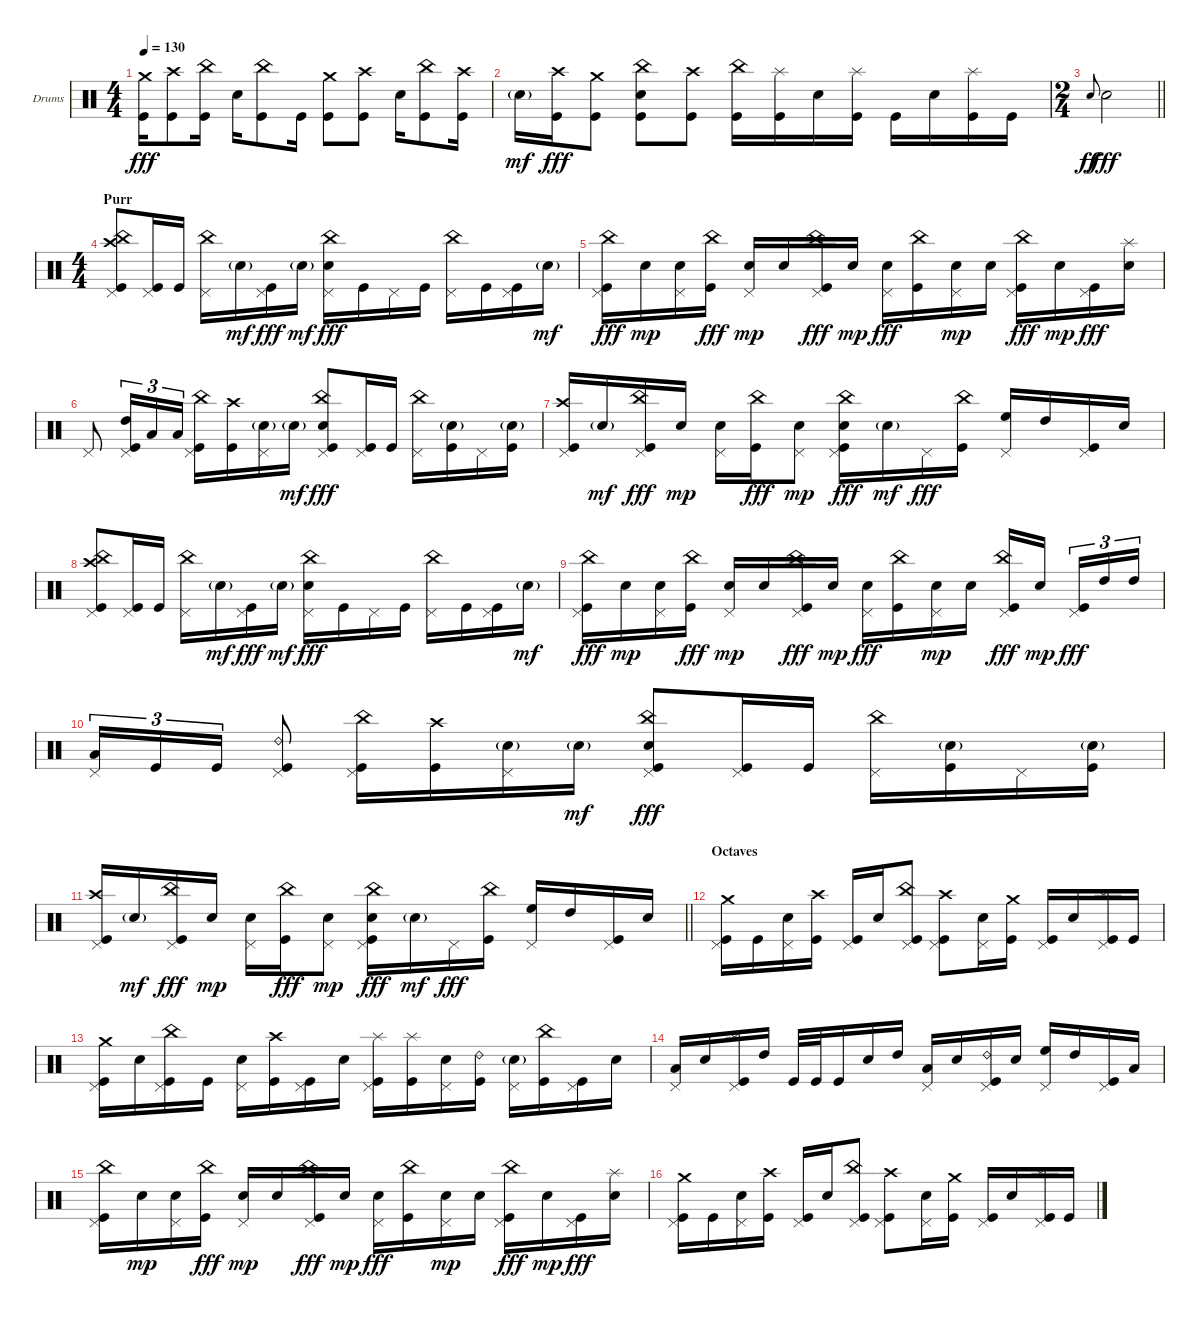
\bracketExtendMode groupsimilarinstruments
\firstSystemTrackNameOrientation horizontal
\otherSystemsTrackNameOrientation horizontal
\track ("Drumkit" "Drums") {instrument percussion}
\staff {score}
\articulation defaults
\ts (4 4)
\tempo 130
\clef neutral
\ks c
("Crash medium (hit)" "Kick (hit)").16{dy fff} ("Crash high (hit)" "Kick (hit)").8 ("China (hit)" "Kick (hit)").16 "Snare (hit) 2".16 ("China (hit)" "Kick (hit)").8 "Kick (hit)".16 ("Crash medium (hit)" "Kick (hit)").8 ("Crash high (hit)" "Kick (hit)").8 "Snare (hit) 2".16 ("China (hit)" "Kick (hit)").8 ("Crash high (hit)" "Kick (hit)").16 |
"Snare (hit) 2"{g}.16{dy mf} ("Crash high (hit)" "Kick (hit)").16{dy fff} ("Crash medium (hit)" "Kick (hit)").8 ("China (hit)" "Snare (hit) 2" "Kick (hit)").8 ("Crash high (hit)" "Kick (hit)").8 ("China (hit)" "Kick (hit)").16 ("Splash (hit)" "Kick (hit)").16 "Snare (hit) 2".16 ("Splash (hit)" "Kick (hit)").16 "Kick (hit)".16 "Snare (hit) 2".16 ("Splash (hit)" "Kick (hit)").16 "Kick (hit)".16 |
\ts (2 4)
\beaming (8 2 2)
\barLineRight lightlight "Snare (hit) 2".8{gr onbeat dy ff} "Snare (hit) 2".2{dy fff}
|
\ts (4 4)
\beaming (8 2 2 2 2)
\section ("" "Purr")
("Crash high (hit)" "China (hit)" "Pedal Hi-Hat (hit)" "Kick (hit)").8 ("Pedal Hi-Hat (hit)" "Kick (hit)").16 "Kick (hit)".16 ("China (hit)" "Pedal Hi-Hat (hit)").16 "Snare (hit) 2"{g}.16{dy mf} ("Pedal Hi-Hat (hit)" "Kick (hit)").16{dy fff} "Snare (hit) 2"{g}.16{dy mf} ("China (hit)" "Snare (hit) 2" "Pedal Hi-Hat (hit)").16{dy fff} "Kick (hit)".16 "Pedal Hi-Hat (hit)".16 "Kick (hit)".16 ("China (hit)" "Pedal Hi-Hat (hit)").16 "Kick (hit)".16 ("Pedal Hi-Hat (hit)" "Kick (hit)").16 "Snare (hit) 2"{g}.16{dy mf} |
("China (hit)" "Pedal Hi-Hat (hit)" "Kick (hit)").16{dy fff} "Snare (hit) 2".16{dy mp} ("Snare (hit) 2" "Pedal Hi-Hat (hit)").16 ("China (hit)" "Kick (hit)").16{dy fff} ("Snare (hit) 2" "Pedal Hi-Hat (hit)").16{dy mp} "Snare (hit) 2".16 ("China (hit)" "Pedal Hi-Hat (hit)" "Kick (hit)").16{dy fff} "Snare (hit) 2".16{dy mp} ("Snare (hit) 2" "Pedal Hi-Hat (hit)").16{dy fff} ("China (hit)" "Kick (hit)").16 ("Snare (hit) 2" "Pedal Hi-Hat (hit)").16{dy mp} "Snare (hit) 2".16 ("China (hit)" "Pedal Hi-Hat (hit)" "Kick (hit)").16{dy fff} "Snare (hit) 2".16{dy mp} ("Pedal Hi-Hat (hit)" "Kick (hit)").16{dy fff} ("Splash (hit)" "Snare (hit) 2").16 |
"Pedal Hi-Hat (hit)".8 ("High Tom (hit)" "Pedal Hi-Hat (hit)" "Kick (hit)").16{tu (3 2)} "Low Tom (hit)".16{tu (3 2)} "Low Tom (hit)".16{tu (3 2)} ("China (hit)" "Pedal Hi-Hat (hit)" "Kick (hit)").16 ("Crash high (hit)" "Kick (hit)").16 ("Snare (hit) 2"{g} "Pedal Hi-Hat (hit)").16 "Snare (hit) 2"{g}.16{dy mf} ("China (hit)" "Snare (hit) 2" "Pedal Hi-Hat (hit)" "Kick (hit)").8{dy fff} ("Pedal Hi-Hat (hit)" "Kick (hit)").16 "Kick (hit)".16 ("China (hit)" "Pedal Hi-Hat (hit)").16 ("Snare (hit) 2"{g} "Kick (hit)").16 "Pedal Hi-Hat (hit)".16 ("Snare (hit) 2"{g} "Kick (hit)").16 |
("Crash high (hit)" "Pedal Hi-Hat (hit)" "Kick (hit)").16 "Snare (hit) 2"{g}.16{dy mf} ("China (hit)" "Pedal Hi-Hat (hit)" "Kick (hit)").16{dy fff} "Snare (hit) 2".16{dy mp} ("Snare (hit) 2" "Pedal Hi-Hat (hit)").16 ("China (hit)" "Kick (hit)").16{dy fff} ("Snare (hit) 2" "Pedal Hi-Hat (hit)").8{dy mp} ("China (hit)" "Snare (hit) 2" "Pedal Hi-Hat (hit)" "Kick (hit)").16{dy fff} "Snare (hit) 2"{g}.16{dy mf} "Pedal Hi-Hat (hit)".16{dy fff} ("China (hit)" "Kick (hit)").16 ("High Floor Tom (hit)" "Pedal Hi-Hat (hit)").16 "High Tom (hit)".16 ("Pedal Hi-Hat (hit)" "Kick (hit)").16 "Snare (hit) 2".16 |
("Crash high (hit)" "China (hit)" "Pedal Hi-Hat (hit)" "Kick (hit)").8 ("Pedal Hi-Hat (hit)" "Kick (hit)").16 "Kick (hit)".16 ("China (hit)" "Pedal Hi-Hat (hit)").16 "Snare (hit) 2"{g}.16{dy mf} ("Pedal Hi-Hat (hit)" "Kick (hit)").16{dy fff} "Snare (hit) 2"{g}.16{dy mf} ("China (hit)" "Snare (hit) 2" "Pedal Hi-Hat (hit)").16{dy fff} "Kick (hit)".16 "Pedal Hi-Hat (hit)".16 "Kick (hit)".16 ("China (hit)" "Pedal Hi-Hat (hit)").16 "Kick (hit)".16 ("Pedal Hi-Hat (hit)" "Kick (hit)").16 "Snare (hit) 2"{g}.16{dy mf} |
("China (hit)" "Pedal Hi-Hat (hit)" "Kick (hit)").16{dy fff} "Snare (hit) 2".16{dy mp} ("Snare (hit) 2" "Pedal Hi-Hat (hit)").16 ("China (hit)" "Kick (hit)").16{dy fff} ("Snare (hit) 2" "Pedal Hi-Hat (hit)").16{dy mp} "Snare (hit) 2".16 ("China (hit)" "Pedal Hi-Hat (hit)" "Kick (hit)").16{dy fff} "Snare (hit) 2".16{dy mp} ("Snare (hit) 2" "Pedal Hi-Hat (hit)").16{dy fff} ("China (hit)" "Kick (hit)").16 ("Snare (hit) 2" "Pedal Hi-Hat (hit)").16{dy mp} "Snare (hit) 2".16 ("China (hit)" "Pedal Hi-Hat (hit)" "Kick (hit)").16{dy fff} "Snare (hit) 2".16{dy mp} ("Pedal Hi-Hat (hit)" "Kick (hit)").16{tu (3 2) dy fff} "High Tom (hit)".16{tu (3 2)} "High Tom (hit)".16{tu (3 2)} |
("Low Tom (hit)" "Pedal Hi-Hat (hit)").16{tu (3 2)} "Kick (hit)".16{tu (3 2)} "Kick (hit)".16{tu (3 2)} ("Ride (bell) 2" "Pedal Hi-Hat (hit)" "Kick (hit)").8 ("China (hit)" "Pedal Hi-Hat (hit)" "Kick (hit)").16 ("Crash high (hit)" "Kick (hit)").16 ("Snare (hit) 2"{g} "Pedal Hi-Hat (hit)").16 "Snare (hit) 2"{g}.16{dy mf} ("China (hit)" "Snare (hit) 2" "Pedal Hi-Hat (hit)" "Kick (hit)").8{dy fff} ("Pedal Hi-Hat (hit)" "Kick (hit)").16 "Kick (hit)".16 ("China (hit)" "Pedal Hi-Hat (hit)").16 ("Snare (hit) 2"{g} "Kick (hit)").16 "Pedal Hi-Hat (hit)".16 ("Snare (hit) 2"{g} "Kick (hit)").16 |
\barLineRight lightlight
("Crash high (hit)" "Pedal Hi-Hat (hit)" "Kick (hit)").16 "Snare (hit) 2"{g}.16{dy mf} ("China (hit)" "Pedal Hi-Hat (hit)" "Kick (hit)").16{dy fff} "Snare (hit) 2".16{dy mp} ("Snare (hit) 2" "Pedal Hi-Hat (hit)").16 ("China (hit)" "Kick (hit)").16{dy fff} ("Snare (hit) 2" "Pedal Hi-Hat (hit)").8{dy mp} ("China (hit)" "Snare (hit) 2" "Pedal Hi-Hat (hit)" "Kick (hit)").16{dy fff} "Snare (hit) 2"{g}.16{dy mf} "Pedal Hi-Hat (hit)".16{dy fff} ("China (hit)" "Kick (hit)").16 ("High Floor Tom (hit)" "Pedal Hi-Hat (hit)").16 "High Tom (hit)".16 ("Pedal Hi-Hat (hit)" "Kick (hit)").16 "Snare (hit) 2".16 |
\section ("" "Octaves")
("Crash medium (hit)" "Pedal Hi-Hat (hit)" "Kick (hit)").16 "Kick (hit)".16 ("Snare (hit) 2" "Pedal Hi-Hat (hit)").16 ("Crash high (hit)" "Kick (hit)").16 ("Pedal Hi-Hat (hit)" "Kick (hit)").16 "Snare (hit) 2".16 ("China (hit)" "Pedal Hi-Hat (hit)" "Kick (hit)").8 ("Crash high (hit)" "Pedal Hi-Hat (hit)" "Kick (hit)").8 ("Snare (hit) 2" "Pedal Hi-Hat (hit)").16 ("Crash medium (hit)" "Kick (hit)").16 ("Pedal Hi-Hat (hit)" "Kick (hit)").16 "Snare (hit) 2".16 ("Splash (hit)" "Pedal Hi-Hat (hit)" "Kick (hit)").16 "Kick (hit)".16 |
("Crash medium (hit)" "Pedal Hi-Hat (hit)" "Kick (hit)").16 "Snare (hit) 2".16 ("China (hit)" "Pedal Hi-Hat (hit)" "Kick (hit)").16 "Kick (hit)".16 ("Snare (hit) 2" "Pedal Hi-Hat (hit)").16 ("Crash high (hit)" "Kick (hit)").16 ("Pedal Hi-Hat (hit)" "Kick (hit)").16 "Snare (hit) 2".16 ("Splash (hit)" "Pedal Hi-Hat (hit)" "Kick (hit)").16 ("Splash (hit)" "Kick (hit)").16 ("Snare (hit) 2" "Pedal Hi-Hat (hit)").16 ("Ride (bell) 2" "Kick (hit)").16 ("Snare (hit) 2"{g} "Pedal Hi-Hat (hit)").16 ("China (hit)" "Kick (hit)").16 ("Pedal Hi-Hat (hit)" "Kick (hit)").16 "Snare (hit) 2".16 |
("Low Tom (hit)" "Pedal Hi-Hat (hit)").16 "Snare (hit) 2".16 ("Splash (hit)" "Pedal Hi-Hat (hit)" "Kick (hit)").16 "High Tom (hit)".16 "Kick (hit)".32 "Kick (hit)".32 "Kick (hit)".16 "Snare (hit) 2".16 "High Tom (hit)".16 ("Low Tom (hit)" "Pedal Hi-Hat (hit)").16 "Snare (hit) 2".16 ("Ride (bell) 2" "Pedal Hi-Hat (hit)" "Kick (hit)").16 "Snare (hit) 2".16 ("High Floor Tom (hit)" "Pedal Hi-Hat (hit)").16 "High Tom (hit)".16 ("Pedal Hi-Hat (hit)" "Kick (hit)").16 "Low Tom (hit)".16 |
("China (hit)" "Pedal Hi-Hat (hit)" "Kick (hit)").16 "Snare (hit) 2".16{dy mp} ("Snare (hit) 2" "Pedal Hi-Hat (hit)").16 ("China (hit)" "Kick (hit)").16{dy fff} ("Snare (hit) 2" "Pedal Hi-Hat (hit)").16{dy mp} "Snare (hit) 2".16 ("China (hit)" "Pedal Hi-Hat (hit)" "Kick (hit)").16{dy fff} "Snare (hit) 2".16{dy mp} ("Snare (hit) 2" "Pedal Hi-Hat (hit)").16{dy fff} ("China (hit)" "Kick (hit)").16 ("Snare (hit) 2" "Pedal Hi-Hat (hit)").16{dy mp} "Snare (hit) 2".16 ("China (hit)" "Pedal Hi-Hat (hit)" "Kick (hit)").16{dy fff} "Snare (hit) 2".16{dy mp} ("Pedal Hi-Hat (hit)" "Kick (hit)").16{dy fff} ("Splash (hit)" "Snare (hit) 2").16 |
("Crash medium (hit)" "Pedal Hi-Hat (hit)" "Kick (hit)").16 "Kick (hit)".16 ("Snare (hit) 2" "Pedal Hi-Hat (hit)").16 ("Crash high (hit)" "Kick (hit)").16 ("Pedal Hi-Hat (hit)" "Kick (hit)").16 "Snare (hit) 2".16 ("China (hit)" "Pedal Hi-Hat (hit)" "Kick (hit)").8 ("Crash high (hit)" "Pedal Hi-Hat (hit)" "Kick (hit)").8 ("Snare (hit) 2" "Pedal Hi-Hat (hit)").16 ("Crash medium (hit)" "Kick (hit)").16 ("Pedal Hi-Hat (hit)" "Kick (hit)").16 "Snare (hit) 2".16 ("Splash (hit)" "Pedal Hi-Hat (hit)" "Kick (hit)").16 "Kick (hit)".16
